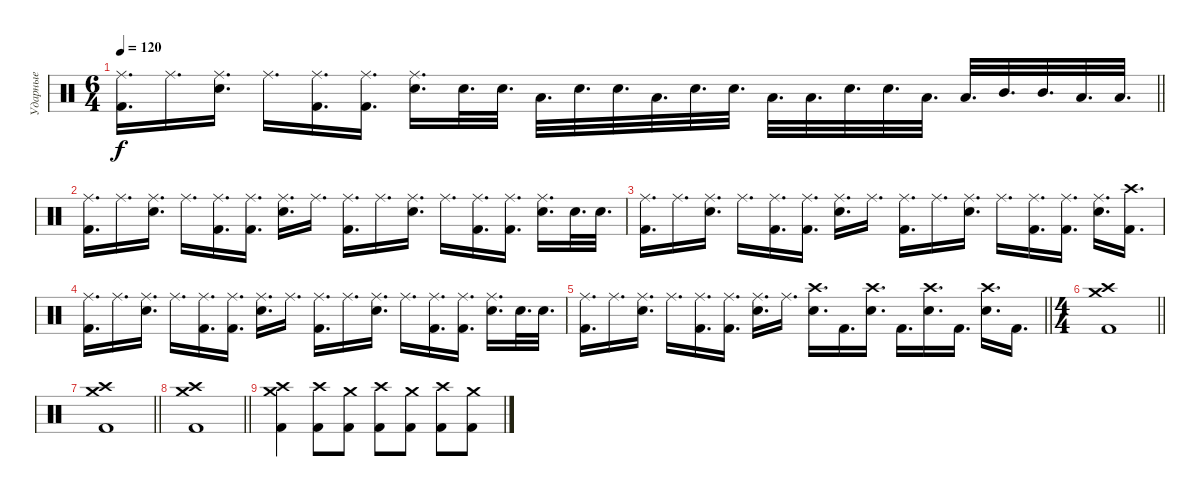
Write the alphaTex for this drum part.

\track ("Ударные" "Ударные") {instrument percussion}
\staff {score}
\articulation defaults
\ts (6 4)
\tempo 120
\clef neutral
\barLineRight lightlight
\ks c
("Ride (middle)" "Kick (hit) 2").16{d dy f} "Ride (middle)".16{d} ("Ride (middle)" "Electric Snare (hit)").16{d} "Ride (middle)".16{d} ("Ride (middle)" "Kick (hit) 2").16{d} ("Ride (middle)" "Kick (hit) 2").16{d} ("Ride (middle)" "Electric Snare (hit)").16{d} "Electric Snare (hit)".32{d} "Electric Snare (hit)".32{d} "Low Tom (hit)".32{d} "Electric Snare (hit)".32{d} "Electric Snare (hit)".32{d} "Low Tom (hit)".32{d} "Electric Snare (hit)".32{d} "Electric Snare (hit)".32{d} "Low Tom (hit)".32{d} "Low Tom (hit)".32{d} "Electric Snare (hit)".32{d} "Electric Snare (hit)".32{d} "Low Tom (hit)".32{d} "Low Tom (hit)".32{d} "Mid Tom (hit)".32{d} "Mid Tom (hit)".32{d} "Low Floor Tom (hit)".32{d} "Low Floor Tom (hit)".32{d} |
("Ride (middle)" "Kick (hit) 2").16{d} "Ride (middle)".16{d} ("Ride (middle)" "Electric Snare (hit)").16{d} "Ride (middle)".16{d} ("Ride (middle)" "Kick (hit) 2").16{d} ("Ride (middle)" "Kick (hit) 2").16{d} ("Ride (middle)" "Electric Snare (hit)").16{d} "Ride (middle)".16{d} ("Ride (middle)" "Kick (hit) 2").16{d} "Ride (middle)".16{d} ("Ride (middle)" "Electric Snare (hit)").16{d} "Ride (middle)".16{d} ("Ride (middle)" "Kick (hit) 2").16{d} ("Ride (middle)" "Kick (hit) 2").16{d} ("Ride (middle)" "Electric Snare (hit)").16{d} "Electric Snare (hit)".32{d} "Electric Snare (hit)".32{d} |
("Ride (middle)" "Kick (hit) 2").16{d} "Ride (middle)".16{d} ("Ride (middle)" "Electric Snare (hit)").16{d} "Ride (middle)".16{d} ("Ride (middle)" "Kick (hit) 2").16{d} ("Ride (middle)" "Kick (hit) 2").16{d} ("Ride (middle)" "Electric Snare (hit)").16{d} "Ride (middle)".16{d} ("Ride (middle)" "Kick (hit) 2").16{d} "Ride (middle)".16{d} ("Ride (middle)" "Electric Snare (hit)").16{d} "Ride (middle)".16{d} ("Ride (middle)" "Kick (hit) 2").16{d} ("Ride (middle)" "Kick (hit) 2").16{d} ("Ride (middle)" "Electric Snare (hit)").16{d} ("Crash high (hit)" "Kick (hit) 2").16{d} |
("Ride (middle)" "Kick (hit) 2").16{d} "Ride (middle)".16{d} ("Ride (middle)" "Electric Snare (hit)").16{d} "Ride (middle)".16{d} ("Ride (middle)" "Kick (hit) 2").16{d} ("Ride (middle)" "Kick (hit) 2").16{d} ("Ride (middle)" "Electric Snare (hit)").16{d} "Ride (middle)".16{d} ("Ride (middle)" "Kick (hit) 2").16{d} "Ride (middle)".16{d} ("Ride (middle)" "Electric Snare (hit)").16{d} "Ride (middle)".16{d} ("Ride (middle)" "Kick (hit) 2").16{d} ("Ride (middle)" "Kick (hit) 2").16{d} ("Ride (middle)" "Electric Snare (hit)").16{d} "Electric Snare (hit)".32{d} "Electric Snare (hit)".32{d} |
\barLineRight lightlight
("Ride (middle)" "Kick (hit) 2").16{d} "Ride (middle)".16{d} ("Ride (middle)" "Electric Snare (hit)").16{d} "Ride (middle)".16{d} ("Ride (middle)" "Kick (hit) 2").16{d} ("Ride (middle)" "Kick (hit) 2").16{d} ("Ride (middle)" "Electric Snare (hit)").16{d} "Ride (middle)".16{d} ("Crash high (hit)" "Electric Snare (hit)").16{d} "Kick (hit) 2".16{d} ("Crash high (hit)" "Electric Snare (hit)").16{d} "Kick (hit) 2".16{d} ("Crash high (hit)" "Electric Snare (hit)").16{d} "Kick (hit) 2".16{d} ("Crash high (hit)" "Electric Snare (hit)").16{d} "Kick (hit) 2".16{d} |
\ts (4 4)
\barLineRight lightlight
("Crash high (hit)" "Crash medium (hit)" "Kick (hit) 2").1 |
\barLineRight lightlight
("Crash high (hit)" "Crash medium (hit)" "Kick (hit) 2").1 |
\barLineRight lightlight
("Crash high (hit)" "Crash medium (hit)" "Kick (hit) 2").1 |
("Crash high (hit)" "Crash medium (hit)" "Kick (hit) 2").4 ("Crash high (hit)" "Kick (hit) 2").8 ("Crash medium (hit)" "Kick (hit) 2").8 ("Crash high (hit)" "Kick (hit) 2").8 ("Crash medium (hit)" "Kick (hit) 2").8 ("Crash high (hit)" "Kick (hit) 2").8 ("Crash medium (hit)" "Kick (hit) 2").8
